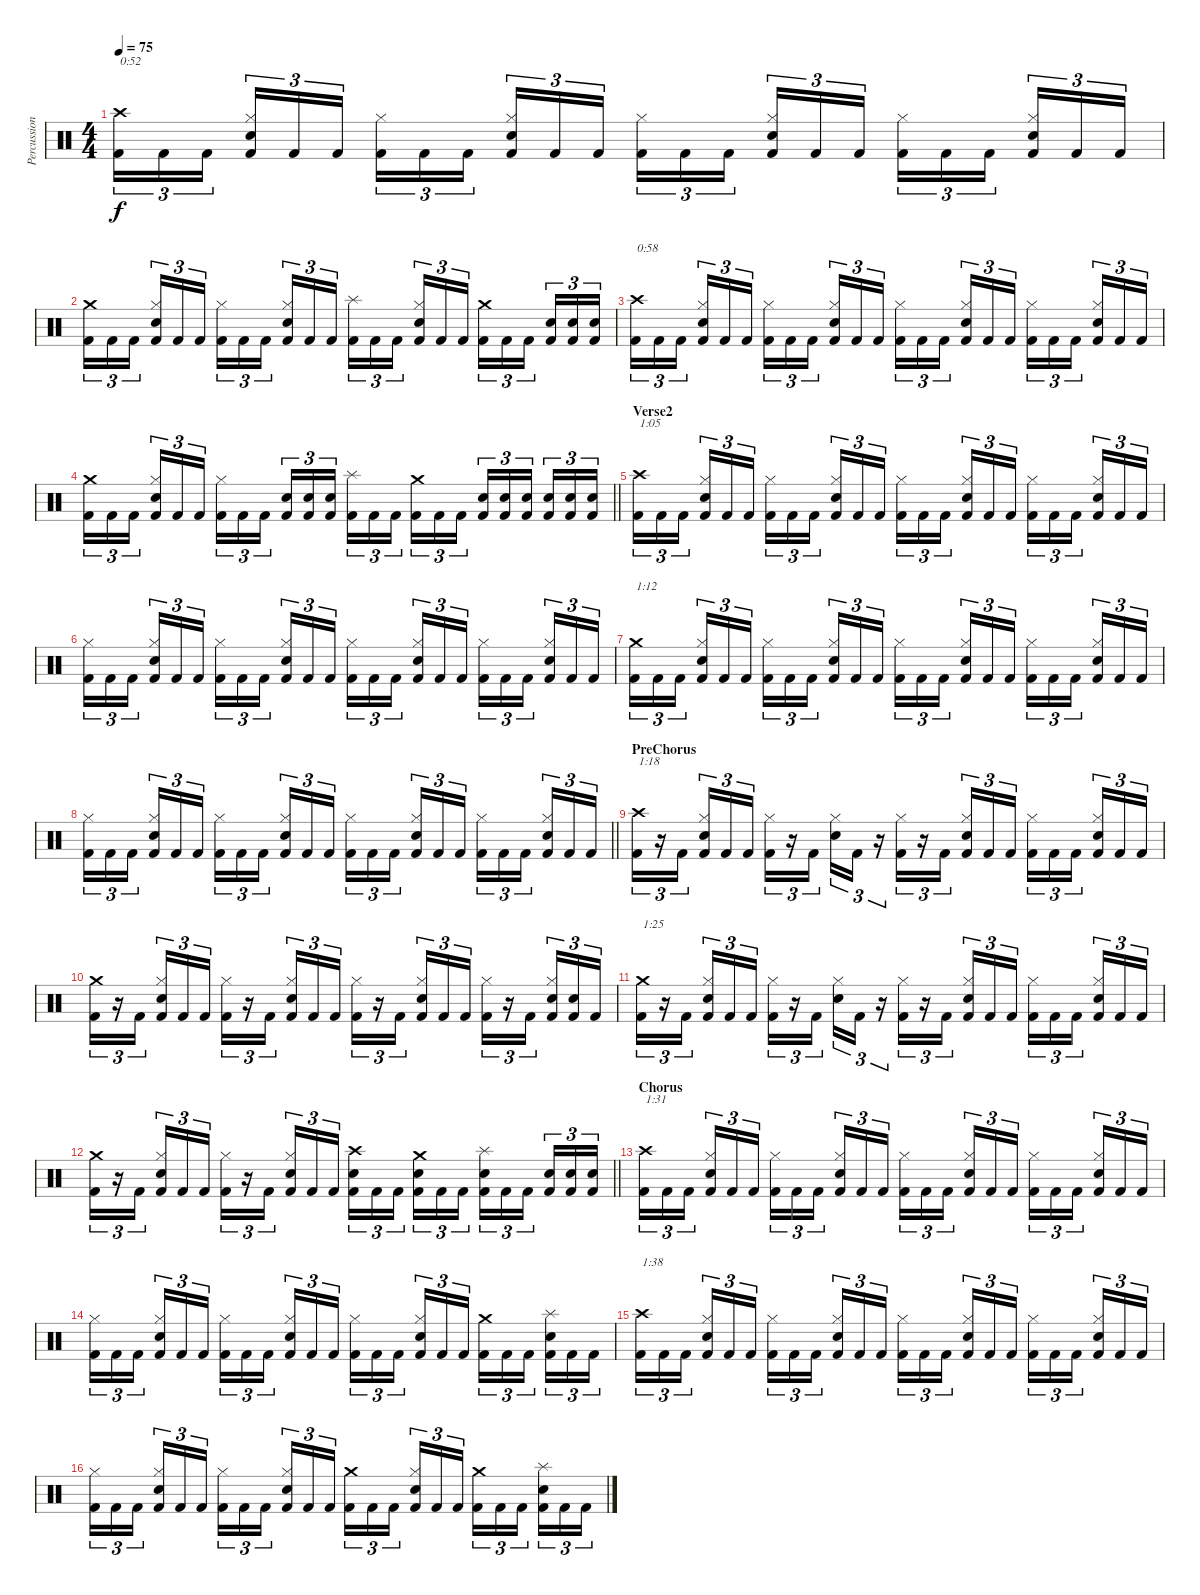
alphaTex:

\track ("Percussion" "Percussion") {instrument percussion}
\staff {score}
\articulation defaults
\ts (4 4)
\tempo 75
\clef neutral
\ks c
("Crash high (hit)" "Kick (hit) 2").16{tu (3 2) txt "0:52" dy f} "Kick (hit) 2".16{tu (3 2)} "Kick (hit) 2".16{tu (3 2)} ("Hi-Hat (closed)" "Snare (hit) 2" "Kick (hit) 2").16{tu (3 2)} "Kick (hit) 2".16{tu (3 2)} "Kick (hit) 2".16{tu (3 2)} ("Hi-Hat (closed)" "Kick (hit) 2").16{tu (3 2)} "Kick (hit) 2".16{tu (3 2)} "Kick (hit) 2".16{tu (3 2)} ("Hi-Hat (closed)" "Snare (hit) 2" "Kick (hit) 2").16{tu (3 2)} "Kick (hit) 2".16{tu (3 2)} "Kick (hit) 2".16{tu (3 2)} ("Hi-Hat (closed)" "Kick (hit) 2").16{tu (3 2)} "Kick (hit) 2".16{tu (3 2)} "Kick (hit) 2".16{tu (3 2)} ("Hi-Hat (closed)" "Snare (hit) 2" "Kick (hit) 2").16{tu (3 2)} "Kick (hit) 2".16{tu (3 2)} "Kick (hit) 2".16{tu (3 2)} ("Hi-Hat (closed)" "Kick (hit) 2").16{tu (3 2)} "Kick (hit) 2".16{tu (3 2)} "Kick (hit) 2".16{tu (3 2)} ("Hi-Hat (closed)" "Snare (hit) 2" "Kick (hit) 2").16{tu (3 2)} "Kick (hit) 2".16{tu (3 2)} "Kick (hit) 2".16{tu (3 2)} |
("Crash medium (hit)" "Kick (hit) 2").16{tu (3 2)} "Kick (hit) 2".16{tu (3 2)} "Kick (hit) 2".16{tu (3 2)} ("Hi-Hat (closed)" "Snare (hit) 2" "Kick (hit) 2").16{tu (3 2)} "Kick (hit) 2".16{tu (3 2)} "Kick (hit) 2".16{tu (3 2)} ("Hi-Hat (closed)" "Kick (hit) 2").16{tu (3 2)} "Kick (hit) 2".16{tu (3 2)} "Kick (hit) 2".16{tu (3 2)} ("Hi-Hat (closed)" "Snare (hit) 2" "Kick (hit) 2").16{tu (3 2)} "Kick (hit) 2".16{tu (3 2)} "Kick (hit) 2".16{tu (3 2)} ("Splash (hit)" "Kick (hit) 2").16{tu (3 2)} "Kick (hit) 2".16{tu (3 2)} "Kick (hit) 2".16{tu (3 2)} ("Hi-Hat (closed)" "Snare (hit) 2" "Kick (hit) 2").16{tu (3 2)} "Kick (hit) 2".16{tu (3 2)} "Kick (hit) 2".16{tu (3 2)} ("Crash medium (hit)" "Kick (hit) 2").16{tu (3 2)} "Kick (hit) 2".16{tu (3 2)} "Kick (hit) 2".16{tu (3 2)} ("Snare (hit) 2" "Kick (hit) 2").16{tu (3 2)} ("Snare (hit) 2" "Kick (hit) 2").16{tu (3 2)} ("Snare (hit) 2" "Kick (hit) 2").16{tu (3 2)} |
("Crash high (hit)" "Kick (hit) 2").16{tu (3 2) txt "0:58"} "Kick (hit) 2".16{tu (3 2)} "Kick (hit) 2".16{tu (3 2)} ("Hi-Hat (closed)" "Snare (hit) 2" "Kick (hit) 2").16{tu (3 2)} "Kick (hit) 2".16{tu (3 2)} "Kick (hit) 2".16{tu (3 2)} ("Hi-Hat (closed)" "Kick (hit) 2").16{tu (3 2)} "Kick (hit) 2".16{tu (3 2)} "Kick (hit) 2".16{tu (3 2)} ("Hi-Hat (closed)" "Snare (hit) 2" "Kick (hit) 2").16{tu (3 2)} "Kick (hit) 2".16{tu (3 2)} "Kick (hit) 2".16{tu (3 2)} ("Hi-Hat (closed)" "Kick (hit) 2").16{tu (3 2)} "Kick (hit) 2".16{tu (3 2)} "Kick (hit) 2".16{tu (3 2)} ("Hi-Hat (closed)" "Snare (hit) 2" "Kick (hit) 2").16{tu (3 2)} "Kick (hit) 2".16{tu (3 2)} "Kick (hit) 2".16{tu (3 2)} ("Hi-Hat (closed)" "Kick (hit) 2").16{tu (3 2)} "Kick (hit) 2".16{tu (3 2)} "Kick (hit) 2".16{tu (3 2)} ("Hi-Hat (closed)" "Snare (hit) 2" "Kick (hit) 2").16{tu (3 2)} "Kick (hit) 2".16{tu (3 2)} "Kick (hit) 2".16{tu (3 2)} |
\barLineRight lightlight
("Crash medium (hit)" "Kick (hit) 2").16{tu (3 2)} "Kick (hit) 2".16{tu (3 2)} "Kick (hit) 2".16{tu (3 2)} ("Hi-Hat (closed)" "Snare (hit) 2" "Kick (hit) 2").16{tu (3 2)} "Kick (hit) 2".16{tu (3 2)} "Kick (hit) 2".16{tu (3 2)} ("Hi-Hat (closed)" "Kick (hit) 2").16{tu (3 2)} "Kick (hit) 2".16{tu (3 2)} "Kick (hit) 2".16{tu (3 2)} ("Snare (hit) 2" "Kick (hit) 2").16{tu (3 2)} ("Snare (hit) 2" "Kick (hit) 2").16{tu (3 2)} ("Snare (hit) 2" "Kick (hit) 2").16{tu (3 2)} ("Splash (hit)" "Kick (hit) 2").16{tu (3 2)} "Kick (hit) 2".16{tu (3 2)} "Kick (hit) 2".16{tu (3 2)} ("Crash medium (hit)" "Kick (hit) 2").16{tu (3 2)} "Kick (hit) 2".16{tu (3 2)} "Kick (hit) 2".16{tu (3 2)} ("Snare (hit) 2" "Kick (hit) 2").16{tu (3 2)} ("Snare (hit) 2" "Kick (hit) 2").16{tu (3 2)} ("Snare (hit) 2" "Kick (hit) 2").16{tu (3 2)} ("Snare (hit) 2" "Kick (hit) 2").16{tu (3 2)} ("Snare (hit) 2" "Kick (hit) 2").16{tu (3 2)} ("Snare (hit) 2" "Kick (hit) 2").16{tu (3 2)} |
\section ("" "Verse2")
("Crash high (hit)" "Kick (hit) 2").16{tu (3 2) txt "1:05"} "Kick (hit) 2".16{tu (3 2)} "Kick (hit) 2".16{tu (3 2)} ("Hi-Hat (closed)" "Snare (hit) 2" "Kick (hit) 2").16{tu (3 2)} "Kick (hit) 2".16{tu (3 2)} "Kick (hit) 2".16{tu (3 2)} ("Hi-Hat (closed)" "Kick (hit) 2").16{tu (3 2)} "Kick (hit) 2".16{tu (3 2)} "Kick (hit) 2".16{tu (3 2)} ("Hi-Hat (closed)" "Snare (hit) 2" "Kick (hit) 2").16{tu (3 2)} "Kick (hit) 2".16{tu (3 2)} "Kick (hit) 2".16{tu (3 2)} ("Hi-Hat (closed)" "Kick (hit) 2").16{tu (3 2)} "Kick (hit) 2".16{tu (3 2)} "Kick (hit) 2".16{tu (3 2)} ("Hi-Hat (closed)" "Snare (hit) 2" "Kick (hit) 2").16{tu (3 2)} "Kick (hit) 2".16{tu (3 2)} "Kick (hit) 2".16{tu (3 2)} ("Hi-Hat (closed)" "Kick (hit) 2").16{tu (3 2)} "Kick (hit) 2".16{tu (3 2)} "Kick (hit) 2".16{tu (3 2)} ("Hi-Hat (closed)" "Snare (hit) 2" "Kick (hit) 2").16{tu (3 2)} "Kick (hit) 2".16{tu (3 2)} "Kick (hit) 2".16{tu (3 2)} |
("Hi-Hat (closed)" "Kick (hit) 2").16{tu (3 2)} "Kick (hit) 2".16{tu (3 2)} "Kick (hit) 2".16{tu (3 2)} ("Hi-Hat (closed)" "Snare (hit) 2" "Kick (hit) 2").16{tu (3 2)} "Kick (hit) 2".16{tu (3 2)} "Kick (hit) 2".16{tu (3 2)} ("Hi-Hat (closed)" "Kick (hit) 2").16{tu (3 2)} "Kick (hit) 2".16{tu (3 2)} "Kick (hit) 2".16{tu (3 2)} ("Hi-Hat (closed)" "Snare (hit) 2" "Kick (hit) 2").16{tu (3 2)} "Kick (hit) 2".16{tu (3 2)} "Kick (hit) 2".16{tu (3 2)} ("Hi-Hat (closed)" "Kick (hit) 2").16{tu (3 2)} "Kick (hit) 2".16{tu (3 2)} "Kick (hit) 2".16{tu (3 2)} ("Hi-Hat (closed)" "Snare (hit) 2" "Kick (hit) 2").16{tu (3 2)} "Kick (hit) 2".16{tu (3 2)} "Kick (hit) 2".16{tu (3 2)} ("Hi-Hat (closed)" "Kick (hit) 2").16{tu (3 2)} "Kick (hit) 2".16{tu (3 2)} "Kick (hit) 2".16{tu (3 2)} ("Hi-Hat (closed)" "Snare (hit) 2" "Kick (hit) 2").16{tu (3 2)} "Kick (hit) 2".16{tu (3 2)} "Kick (hit) 2".16{tu (3 2)} |
("Crash medium (hit)" "Kick (hit) 2").16{tu (3 2) txt "1:12"} "Kick (hit) 2".16{tu (3 2)} "Kick (hit) 2".16{tu (3 2)} ("Hi-Hat (closed)" "Snare (hit) 2" "Kick (hit) 2").16{tu (3 2)} "Kick (hit) 2".16{tu (3 2)} "Kick (hit) 2".16{tu (3 2)} ("Hi-Hat (closed)" "Kick (hit) 2").16{tu (3 2)} "Kick (hit) 2".16{tu (3 2)} "Kick (hit) 2".16{tu (3 2)} ("Hi-Hat (closed)" "Snare (hit) 2" "Kick (hit) 2").16{tu (3 2)} "Kick (hit) 2".16{tu (3 2)} "Kick (hit) 2".16{tu (3 2)} ("Hi-Hat (closed)" "Kick (hit) 2").16{tu (3 2)} "Kick (hit) 2".16{tu (3 2)} "Kick (hit) 2".16{tu (3 2)} ("Hi-Hat (closed)" "Snare (hit) 2" "Kick (hit) 2").16{tu (3 2)} "Kick (hit) 2".16{tu (3 2)} "Kick (hit) 2".16{tu (3 2)} ("Hi-Hat (closed)" "Kick (hit) 2").16{tu (3 2)} "Kick (hit) 2".16{tu (3 2)} "Kick (hit) 2".16{tu (3 2)} ("Hi-Hat (closed)" "Snare (hit) 2" "Kick (hit) 2").16{tu (3 2)} "Kick (hit) 2".16{tu (3 2)} "Kick (hit) 2".16{tu (3 2)} |
\barLineRight lightlight
("Hi-Hat (closed)" "Kick (hit) 2").16{tu (3 2)} "Kick (hit) 2".16{tu (3 2)} "Kick (hit) 2".16{tu (3 2)} ("Hi-Hat (closed)" "Snare (hit) 2" "Kick (hit) 2").16{tu (3 2)} "Kick (hit) 2".16{tu (3 2)} "Kick (hit) 2".16{tu (3 2)} ("Hi-Hat (closed)" "Kick (hit) 2").16{tu (3 2)} "Kick (hit) 2".16{tu (3 2)} "Kick (hit) 2".16{tu (3 2)} ("Hi-Hat (closed)" "Snare (hit) 2" "Kick (hit) 2").16{tu (3 2)} "Kick (hit) 2".16{tu (3 2)} "Kick (hit) 2".16{tu (3 2)} ("Hi-Hat (closed)" "Kick (hit) 2").16{tu (3 2)} "Kick (hit) 2".16{tu (3 2)} "Kick (hit) 2".16{tu (3 2)} ("Hi-Hat (closed)" "Snare (hit) 2" "Kick (hit) 2").16{tu (3 2)} "Kick (hit) 2".16{tu (3 2)} "Kick (hit) 2".16{tu (3 2)} ("Hi-Hat (closed)" "Kick (hit) 2").16{tu (3 2)} "Kick (hit) 2".16{tu (3 2)} "Kick (hit) 2".16{tu (3 2)} ("Hi-Hat (closed)" "Snare (hit) 2" "Kick (hit) 2").16{tu (3 2)} "Kick (hit) 2".16{tu (3 2)} "Kick (hit) 2".16{tu (3 2)} |
\section ("" "PreChorus")
("Crash high (hit)" "Kick (hit) 2").16{tu (3 2) txt "1:18"} r.16{tu (3 2)} "Kick (hit) 2".16{tu (3 2)} ("Hi-Hat (closed)" "Snare (hit) 2" "Kick (hit) 2").16{tu (3 2)} "Kick (hit) 2".16{tu (3 2)} "Kick (hit) 2".16{tu (3 2)} ("Hi-Hat (closed)" "Kick (hit) 2").16{tu (3 2)} r.16{tu (3 2)} "Kick (hit) 2".16{tu (3 2)} ("Hi-Hat (closed)" "Snare (hit) 2").16{tu (3 2)} "Kick (hit) 2".16{tu (3 2)} r.16{tu (3 2)} ("Hi-Hat (closed)" "Kick (hit) 2").16{tu (3 2)} r.16{tu (3 2)} "Kick (hit) 2".16{tu (3 2)} ("Hi-Hat (closed)" "Snare (hit) 2" "Kick (hit) 2").16{tu (3 2)} "Kick (hit) 2".16{tu (3 2)} "Kick (hit) 2".16{tu (3 2)} ("Hi-Hat (closed)" "Kick (hit) 2").16{tu (3 2)} "Kick (hit) 2".16{tu (3 2)} "Kick (hit) 2".16{tu (3 2)} ("Hi-Hat (closed)" "Snare (hit) 2" "Kick (hit) 2").16{tu (3 2)} "Kick (hit) 2".16{tu (3 2)} "Kick (hit) 2".16{tu (3 2)} |
("Crash medium (hit)" "Kick (hit) 2").16{tu (3 2)} r.16{tu (3 2)} "Kick (hit) 2".16{tu (3 2)} ("Hi-Hat (closed)" "Snare (hit) 2" "Kick (hit) 2").16{tu (3 2)} "Kick (hit) 2".16{tu (3 2)} "Kick (hit) 2".16{tu (3 2)} ("Hi-Hat (closed)" "Kick (hit) 2").16{tu (3 2)} r.16{tu (3 2)} "Kick (hit) 2".16{tu (3 2)} ("Hi-Hat (closed)" "Snare (hit) 2" "Kick (hit) 2").16{tu (3 2)} "Kick (hit) 2".16{tu (3 2)} "Kick (hit) 2".16{tu (3 2)} ("Hi-Hat (closed)" "Kick (hit) 2").16{tu (3 2)} r.16{tu (3 2)} "Kick (hit) 2".16{tu (3 2)} ("Hi-Hat (closed)" "Snare (hit) 2" "Kick (hit) 2").16{tu (3 2)} "Kick (hit) 2".16{tu (3 2)} "Kick (hit) 2".16{tu (3 2)} ("Hi-Hat (closed)" "Kick (hit) 2").16{tu (3 2)} r.16{tu (3 2)} "Kick (hit) 2".16{tu (3 2)} ("Hi-Hat (closed)" "Snare (hit) 2" "Kick (hit) 2").16{tu (3 2)} ("Snare (hit) 2" "Kick (hit) 2").16{tu (3 2)} "Kick (hit) 2".16{tu (3 2)} |
("Crash medium (hit)" "Kick (hit) 2").16{tu (3 2) txt "1:25"} r.16{tu (3 2)} "Kick (hit) 2".16{tu (3 2)} ("Hi-Hat (closed)" "Snare (hit) 2" "Kick (hit) 2").16{tu (3 2)} "Kick (hit) 2".16{tu (3 2)} "Kick (hit) 2".16{tu (3 2)} ("Hi-Hat (closed)" "Kick (hit) 2").16{tu (3 2)} r.16{tu (3 2)} "Kick (hit) 2".16{tu (3 2)} ("Hi-Hat (closed)" "Snare (hit) 2").16{tu (3 2)} "Kick (hit) 2".16{tu (3 2)} r.16{tu (3 2)} ("Hi-Hat (closed)" "Kick (hit) 2").16{tu (3 2)} r.16{tu (3 2)} "Kick (hit) 2".16{tu (3 2)} ("Hi-Hat (closed)" "Snare (hit) 2" "Kick (hit) 2").16{tu (3 2)} "Kick (hit) 2".16{tu (3 2)} "Kick (hit) 2".16{tu (3 2)} ("Hi-Hat (closed)" "Kick (hit) 2").16{tu (3 2)} "Kick (hit) 2".16{tu (3 2)} "Kick (hit) 2".16{tu (3 2)} ("Hi-Hat (closed)" "Snare (hit) 2" "Kick (hit) 2").16{tu (3 2)} "Kick (hit) 2".16{tu (3 2)} "Kick (hit) 2".16{tu (3 2)} |
\barLineRight lightlight
("Crash medium (hit)" "Kick (hit) 2").16{tu (3 2)} r.16{tu (3 2)} "Kick (hit) 2".16{tu (3 2)} ("Hi-Hat (closed)" "Snare (hit) 2" "Kick (hit) 2").16{tu (3 2)} "Kick (hit) 2".16{tu (3 2)} "Kick (hit) 2".16{tu (3 2)} ("Hi-Hat (closed)" "Kick (hit) 2").16{tu (3 2)} r.16{tu (3 2)} "Kick (hit) 2".16{tu (3 2)} ("Hi-Hat (closed)" "Snare (hit) 2" "Kick (hit) 2").16{tu (3 2)} "Kick (hit) 2".16{tu (3 2)} "Kick (hit) 2".16{tu (3 2)} ("Crash high (hit)" "Snare (hit) 2" "Kick (hit) 2").16{tu (3 2)} "Kick (hit) 2".16{tu (3 2)} "Kick (hit) 2".16{tu (3 2)} ("Crash medium (hit)" "Snare (hit) 2" "Kick (hit) 2").16{tu (3 2)} "Kick (hit) 2".16{tu (3 2)} "Kick (hit) 2".16{tu (3 2)} ("Splash (hit)" "Snare (hit) 2" "Kick (hit) 2").16{tu (3 2)} "Kick (hit) 2".16{tu (3 2)} "Kick (hit) 2".16{tu (3 2)} ("Snare (hit) 2" "Kick (hit) 2").16{tu (3 2)} ("Snare (hit) 2" "Kick (hit) 2").16{tu (3 2)} ("Snare (hit) 2" "Kick (hit) 2").16{tu (3 2)} |
\section ("" "Chorus")
("Crash high (hit)" "Kick (hit) 2").16{tu (3 2) txt "1:31"} "Kick (hit) 2".16{tu (3 2)} "Kick (hit) 2".16{tu (3 2)} ("Hi-Hat (closed)" "Snare (hit) 2" "Kick (hit) 2").16{tu (3 2)} "Kick (hit) 2".16{tu (3 2)} "Kick (hit) 2".16{tu (3 2)} ("Hi-Hat (closed)" "Kick (hit) 2").16{tu (3 2)} "Kick (hit) 2".16{tu (3 2)} "Kick (hit) 2".16{tu (3 2)} ("Hi-Hat (closed)" "Snare (hit) 2" "Kick (hit) 2").16{tu (3 2)} "Kick (hit) 2".16{tu (3 2)} "Kick (hit) 2".16{tu (3 2)} ("Hi-Hat (closed)" "Kick (hit) 2").16{tu (3 2)} "Kick (hit) 2".16{tu (3 2)} "Kick (hit) 2".16{tu (3 2)} ("Hi-Hat (closed)" "Snare (hit) 2" "Kick (hit) 2").16{tu (3 2)} "Kick (hit) 2".16{tu (3 2)} "Kick (hit) 2".16{tu (3 2)} ("Hi-Hat (closed)" "Kick (hit) 2").16{tu (3 2)} "Kick (hit) 2".16{tu (3 2)} "Kick (hit) 2".16{tu (3 2)} ("Hi-Hat (closed)" "Snare (hit) 2" "Kick (hit) 2").16{tu (3 2)} "Kick (hit) 2".16{tu (3 2)} "Kick (hit) 2".16{tu (3 2)} |
("Hi-Hat (closed)" "Kick (hit) 2").16{tu (3 2)} "Kick (hit) 2".16{tu (3 2)} "Kick (hit) 2".16{tu (3 2)} ("Hi-Hat (closed)" "Snare (hit) 2" "Kick (hit) 2").16{tu (3 2)} "Kick (hit) 2".16{tu (3 2)} "Kick (hit) 2".16{tu (3 2)} ("Hi-Hat (closed)" "Kick (hit) 2").16{tu (3 2)} "Kick (hit) 2".16{tu (3 2)} "Kick (hit) 2".16{tu (3 2)} ("Hi-Hat (closed)" "Snare (hit) 2" "Kick (hit) 2").16{tu (3 2)} "Kick (hit) 2".16{tu (3 2)} "Kick (hit) 2".16{tu (3 2)} ("Hi-Hat (closed)" "Kick (hit) 2").16{tu (3 2)} "Kick (hit) 2".16{tu (3 2)} "Kick (hit) 2".16{tu (3 2)} ("Hi-Hat (closed)" "Snare (hit) 2" "Kick (hit) 2").16{tu (3 2)} "Kick (hit) 2".16{tu (3 2)} "Kick (hit) 2".16{tu (3 2)} ("Crash medium (hit)" "Kick (hit) 2").16{tu (3 2)} "Kick (hit) 2".16{tu (3 2)} "Kick (hit) 2".16{tu (3 2)} ("Splash (hit)" "Snare (hit) 2" "Kick (hit) 2").16{tu (3 2)} "Kick (hit) 2".16{tu (3 2)} "Kick (hit) 2".16{tu (3 2)} |
("Crash high (hit)" "Kick (hit) 2").16{tu (3 2) txt "1:38"} "Kick (hit) 2".16{tu (3 2)} "Kick (hit) 2".16{tu (3 2)} ("Hi-Hat (closed)" "Snare (hit) 2" "Kick (hit) 2").16{tu (3 2)} "Kick (hit) 2".16{tu (3 2)} "Kick (hit) 2".16{tu (3 2)} ("Hi-Hat (closed)" "Kick (hit) 2").16{tu (3 2)} "Kick (hit) 2".16{tu (3 2)} "Kick (hit) 2".16{tu (3 2)} ("Hi-Hat (closed)" "Snare (hit) 2" "Kick (hit) 2").16{tu (3 2)} "Kick (hit) 2".16{tu (3 2)} "Kick (hit) 2".16{tu (3 2)} ("Hi-Hat (closed)" "Kick (hit) 2").16{tu (3 2)} "Kick (hit) 2".16{tu (3 2)} "Kick (hit) 2".16{tu (3 2)} ("Hi-Hat (closed)" "Snare (hit) 2" "Kick (hit) 2").16{tu (3 2)} "Kick (hit) 2".16{tu (3 2)} "Kick (hit) 2".16{tu (3 2)} ("Hi-Hat (closed)" "Kick (hit) 2").16{tu (3 2)} "Kick (hit) 2".16{tu (3 2)} "Kick (hit) 2".16{tu (3 2)} ("Hi-Hat (closed)" "Snare (hit) 2" "Kick (hit) 2").16{tu (3 2)} "Kick (hit) 2".16{tu (3 2)} "Kick (hit) 2".16{tu (3 2)} |
("Hi-Hat (closed)" "Kick (hit) 2").16{tu (3 2)} "Kick (hit) 2".16{tu (3 2)} "Kick (hit) 2".16{tu (3 2)} ("Hi-Hat (closed)" "Snare (hit) 2" "Kick (hit) 2").16{tu (3 2)} "Kick (hit) 2".16{tu (3 2)} "Kick (hit) 2".16{tu (3 2)} ("Hi-Hat (closed)" "Kick (hit) 2").16{tu (3 2)} "Kick (hit) 2".16{tu (3 2)} "Kick (hit) 2".16{tu (3 2)} ("Hi-Hat (closed)" "Snare (hit) 2" "Kick (hit) 2").16{tu (3 2)} "Kick (hit) 2".16{tu (3 2)} "Kick (hit) 2".16{tu (3 2)} ("Crash medium (hit)" "Kick (hit) 2").16{tu (3 2)} "Kick (hit) 2".16{tu (3 2)} "Kick (hit) 2".16{tu (3 2)} ("Hi-Hat (closed)" "Snare (hit) 2" "Kick (hit) 2").16{tu (3 2)} "Kick (hit) 2".16{tu (3 2)} "Kick (hit) 2".16{tu (3 2)} ("Crash medium (hit)" "Kick (hit) 2").16{tu (3 2)} "Kick (hit) 2".16{tu (3 2)} "Kick (hit) 2".16{tu (3 2)} ("Splash (hit)" "Snare (hit) 2" "Kick (hit) 2").16{tu (3 2)} "Kick (hit) 2".16{tu (3 2)} "Kick (hit) 2".16{tu (3 2)}
